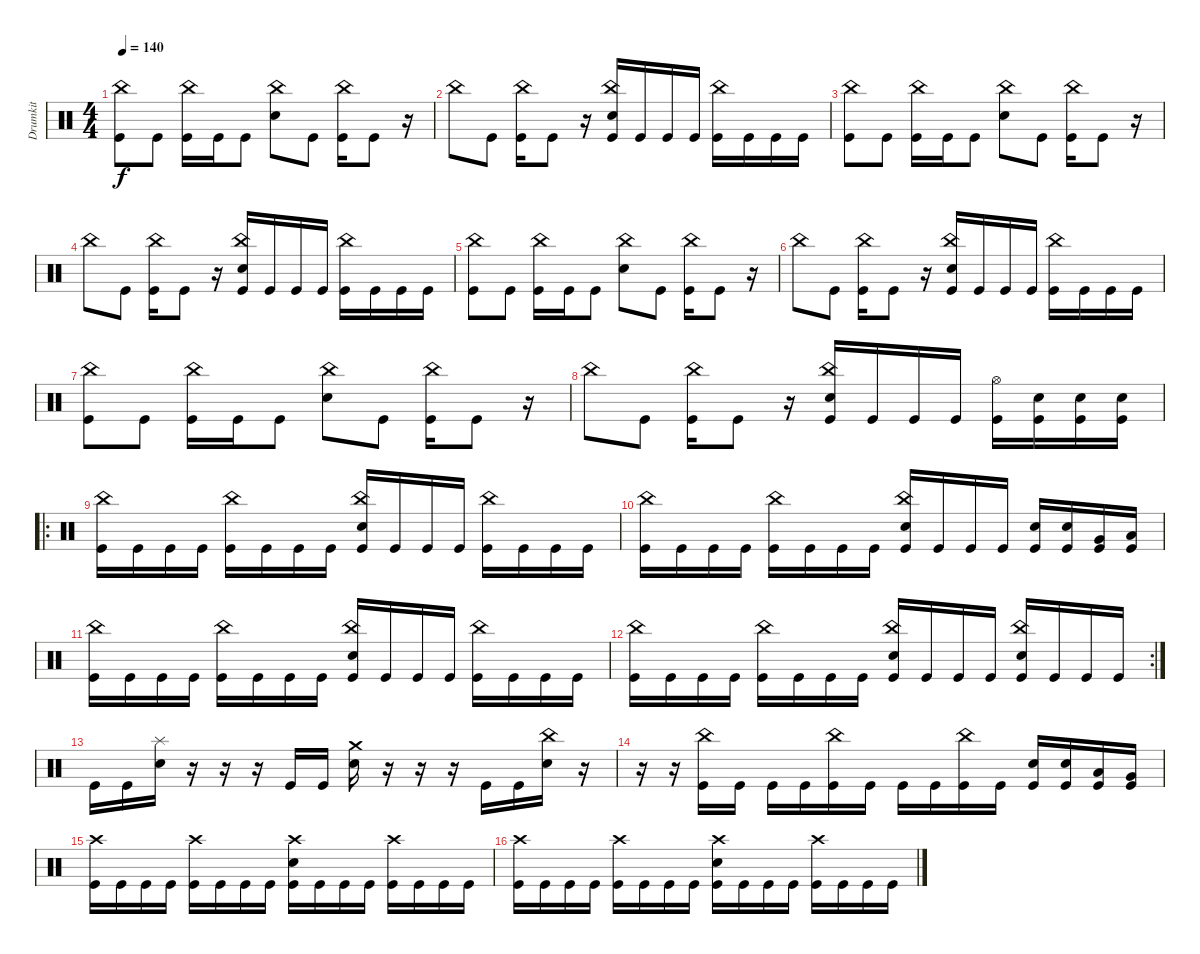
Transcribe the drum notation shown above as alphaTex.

\track ("Drumkit" "Drumkit") {instrument percussion}
\staff {score}
\articulation defaults
\ts (4 4)
\tempo 140
\clef neutral
\ks c
("Kick (hit)" "China (hit)").8{dy f} "Kick (hit)".8 ("Kick (hit)" "China (hit)").16 "Kick (hit)".16 "Kick (hit)".8 ("Snare (hit) 2" "China (hit)").8 "Kick (hit)".8 ("Kick (hit)" "China (hit)").16 "Kick (hit)".8 r.16 |
"China (hit)".8 "Kick (hit)".8 ("Kick (hit)" "China (hit)").16 "Kick (hit)".8 r.16 ("Kick (hit)" "Snare (hit) 2" "China (hit)").16 "Kick (hit)".16 "Kick (hit)".16 "Kick (hit)".16 ("Kick (hit)" "China (hit)").16 "Kick (hit)".16 "Kick (hit)".16 "Kick (hit)".16 |
("Kick (hit)" "China (hit)").8 "Kick (hit)".8 ("Kick (hit)" "China (hit)").16 "Kick (hit)".16 "Kick (hit)".8 ("Snare (hit) 2" "China (hit)").8 "Kick (hit)".8 ("Kick (hit)" "China (hit)").16 "Kick (hit)".8 r.16 |
"China (hit)".8 "Kick (hit)".8 ("Kick (hit)" "China (hit)").16 "Kick (hit)".8 r.16 ("Kick (hit)" "Snare (hit) 2" "China (hit)").16 "Kick (hit)".16 "Kick (hit)".16 "Kick (hit)".16 ("Kick (hit)" "China (hit)").16 "Kick (hit)".16 "Kick (hit)".16 "Kick (hit)".16 |
("Kick (hit)" "China (hit)").8 "Kick (hit)".8 ("Kick (hit)" "China (hit)").16 "Kick (hit)".16 "Kick (hit)".8 ("Snare (hit) 2" "China (hit)").8 "Kick (hit)".8 ("Kick (hit)" "China (hit)").16 "Kick (hit)".8 r.16 |
"China (hit)".8 "Kick (hit)".8 ("Kick (hit)" "China (hit)").16 "Kick (hit)".8 r.16 ("Kick (hit)" "Snare (hit) 2" "China (hit)").16 "Kick (hit)".16 "Kick (hit)".16 "Kick (hit)".16 ("Kick (hit)" "China (hit)").16 "Kick (hit)".16 "Kick (hit)".16 "Kick (hit)".16 |
("Kick (hit)" "China (hit)").8 "Kick (hit)".8 ("Kick (hit)" "China (hit)").16 "Kick (hit)".16 "Kick (hit)".8 ("Snare (hit) 2" "China (hit)").8 "Kick (hit)".8 ("Kick (hit)" "China (hit)").16 "Kick (hit)".8 r.16 |
"China (hit)".8 "Kick (hit)".8 ("Kick (hit)" "China (hit)").16 "Kick (hit)".8 r.16 ("Kick (hit)" "Snare (hit) 2" "China (hit)").16 "Kick (hit)".16 "Kick (hit)".16 "Kick (hit)".16 ("Kick (hit)" "Hi-Hat (open)").16 ("Kick (hit)" "Snare (hit) 2").16 ("Kick (hit)" "Snare (hit) 2").16 ("Kick (hit)" "Snare (hit) 2").16 |
\ro
("Kick (hit)" "China (hit)").16 "Kick (hit)".16 "Kick (hit)".16 "Kick (hit)".16 ("Kick (hit)" "China (hit)").16 "Kick (hit)".16 "Kick (hit)".16 "Kick (hit)".16 ("Kick (hit)" "Snare (hit) 2" "China (hit)").16 "Kick (hit)".16 "Kick (hit)".16 "Kick (hit)".16 ("Kick (hit)" "China (hit)").16 "Kick (hit)".16 "Kick (hit)".16 "Kick (hit)".16 |
("Kick (hit)" "China (hit)").16 "Kick (hit)".16 "Kick (hit)".16 "Kick (hit)".16 ("Kick (hit)" "China (hit)").16 "Kick (hit)".16 "Kick (hit)".16 "Kick (hit)".16 ("Kick (hit)" "Snare (hit) 2" "China (hit)").16 "Kick (hit)".16 "Kick (hit)".16 "Kick (hit)".16 ("Kick (hit)" "Snare (hit) 2").16 ("Kick (hit)" "Snare (hit) 2").16 ("Kick (hit)" "Very Low Tom (hit)").16 ("Kick (hit)" "Low Floor Tom (hit)").16 |
("Kick (hit)" "China (hit)").16 "Kick (hit)".16 "Kick (hit)".16 "Kick (hit)".16 ("Kick (hit)" "China (hit)").16 "Kick (hit)".16 "Kick (hit)".16 "Kick (hit)".16 ("Kick (hit)" "Snare (hit) 2" "China (hit)").16 "Kick (hit)".16 "Kick (hit)".16 "Kick (hit)".16 ("Kick (hit)" "China (hit)").16 "Kick (hit)".16 "Kick (hit)".16 "Kick (hit)".16 |
\rc 2
("Kick (hit)" "China (hit)").16 "Kick (hit)".16 "Kick (hit)".16 "Kick (hit)".16 ("Kick (hit)" "China (hit)").16 "Kick (hit)".16 "Kick (hit)".16 "Kick (hit)".16 ("Kick (hit)" "Snare (hit) 2" "China (hit)").16 "Kick (hit)".16 "Kick (hit)".16 "Kick (hit)".16 ("Kick (hit)" "Snare (hit) 2" "China (hit)").16 "Kick (hit)".16 "Kick (hit)".16 "Kick (hit)".16 |
"Kick (hit)".16 "Kick (hit)".16 ("Snare (hit) 2" "Splash (hit)").16 r.16 r.16 r.16 "Kick (hit)".16 "Kick (hit)".16 ("Snare (hit) 2" "Crash medium (hit)").16 r.16 r.16 r.16 "Kick (hit)".16 "Kick (hit)".16 ("Snare (hit) 2" "China (hit)").16 r.16 |
r.16 r.16 ("Kick (hit)" "China (hit)").16 "Kick (hit)".16 "Kick (hit)".16 "Kick (hit)".16 ("Kick (hit)" "China (hit)").16 "Kick (hit)".16 "Kick (hit)".16 "Kick (hit)".16 ("Kick (hit)" "China (hit)").16 "Kick (hit)".16 ("Kick (hit)" "Snare (hit) 2").16 ("Kick (hit)" "Snare (hit) 2").16 ("Kick (hit)" "Low Tom (hit)").16 ("Kick (hit)" "Very Low Tom (hit)").16 |
("Kick (hit)" "Crash high (hit)").16 "Kick (hit)".16 "Kick (hit)".16 "Kick (hit)".16 ("Kick (hit)" "Crash high (hit)").16 "Kick (hit)".16 "Kick (hit)".16 "Kick (hit)".16 ("Kick (hit)" "Crash high (hit)" "Snare (hit) 2").16 "Kick (hit)".16 "Kick (hit)".16 "Kick (hit)".16 ("Kick (hit)" "Crash high (hit)").16 "Kick (hit)".16 "Kick (hit)".16 "Kick (hit)".16 |
("Kick (hit)" "Crash high (hit)").16 "Kick (hit)".16 "Kick (hit)".16 "Kick (hit)".16 ("Kick (hit)" "Crash high (hit)").16 "Kick (hit)".16 "Kick (hit)".16 "Kick (hit)".16 ("Kick (hit)" "Crash high (hit)" "Snare (hit) 2").16 "Kick (hit)".16 "Kick (hit)".16 "Kick (hit)".16 ("Kick (hit)" "Crash high (hit)").16 "Kick (hit)".16 "Kick (hit)".16 "Kick (hit)".16
